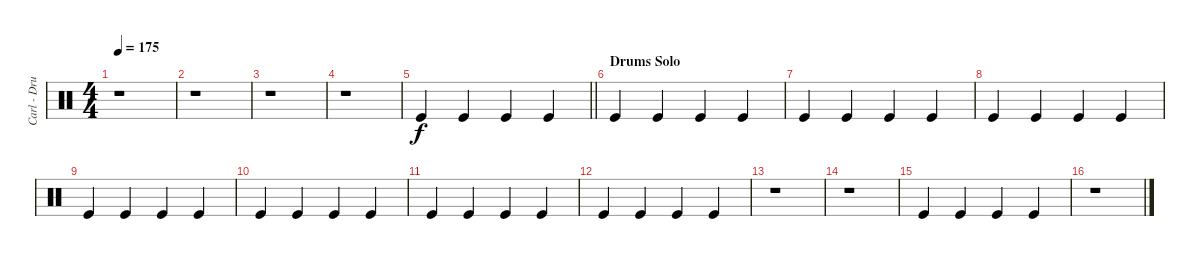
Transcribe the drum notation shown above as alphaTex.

\track ("Carl - Drums I" "Carl - Dru") {instrument percussion}
\staff {score}
\articulation defaults
\ts (4 4)
\tempo 175
\clef neutral
\ks c
r.1{dy f} |
r.1 |
r.1 |
r.1 |
\barLineRight lightlight "Kick (hit)".4 "Kick (hit)".4 "Kick (hit)".4 "Kick (hit)".4
|
\section ("" "Drums Solo")
"Kick (hit)".4 "Kick (hit)".4 "Kick (hit)".4 "Kick (hit)".4 |
"Kick (hit)".4 "Kick (hit)".4 "Kick (hit)".4 "Kick (hit)".4 |
"Kick (hit)".4 "Kick (hit)".4 "Kick (hit)".4 "Kick (hit)".4 |
"Kick (hit)".4 "Kick (hit)".4 "Kick (hit)".4 "Kick (hit)".4 |
"Kick (hit)".4 "Kick (hit)".4 "Kick (hit)".4 "Kick (hit)".4 |
"Kick (hit)".4 "Kick (hit)".4 "Kick (hit)".4 "Kick (hit)".4 |
"Kick (hit)".4 "Kick (hit)".4 "Kick (hit)".4 "Kick (hit)".4 |
r.1 |
r.1 |
"Kick (hit)".4 "Kick (hit)".4 "Kick (hit)".4 "Kick (hit)".4 |
r.1
